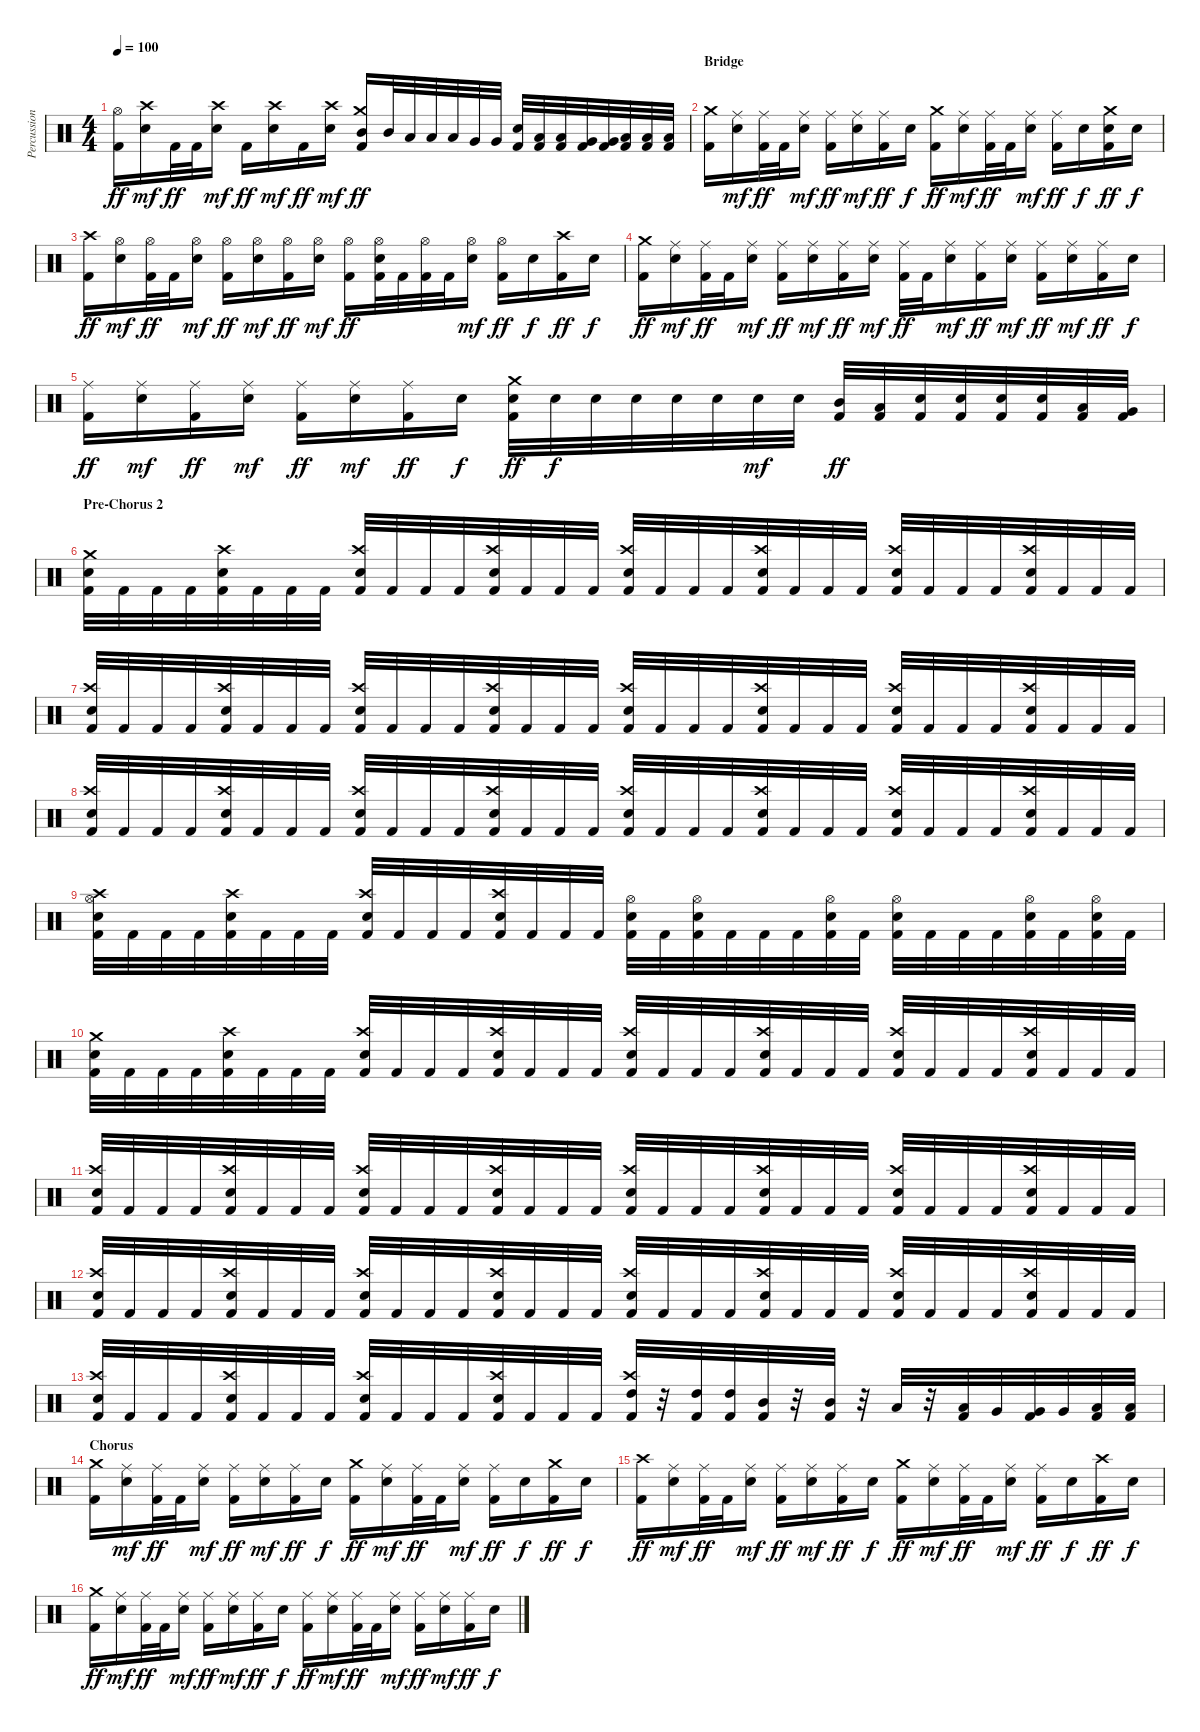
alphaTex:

\track ("Percussion" "Percussion") {instrument percussion}
\staff {score}
\articulation defaults
\ts (4 4)
\tempo 100
\clef neutral
\ks c
("Hi-Hat (open)" "Kick (hit) 2").16{dy ff} ("Crash high (hit)" "Snare (hit) 2").16{dy mf} "Kick (hit) 2".32{dy ff} "Kick (hit) 2".32 ("Crash high (hit)" "Snare (hit) 2").16{dy mf} "Kick (hit) 2".16{dy ff} ("Crash high (hit)" "Snare (hit) 2").16{dy mf} "Kick (hit) 2".16{dy ff} ("Crash high (hit)" "Snare (hit) 2").16{dy mf} ("Crash medium (hit)" "Mid Tom (hit)" "Kick (hit) 2").16{dy ff} "Mid Tom (hit)".32 "Low Tom (hit)".32 "Low Tom (hit)".32 "Low Tom (hit)".32 "Very Low Tom (hit)".32 "Very Low Tom (hit)".32 ("Snare (hit) 2" "Kick (hit) 2").32 ("Low Tom (hit)" "Kick (hit) 2").32 ("Low Tom (hit)" "Kick (hit) 2").32 ("Very Low Tom (hit)" "Kick (hit) 2").32 ("Very Low Tom (hit)" "Kick (hit) 2").32 ("Low Floor Tom (hit)" "Kick (hit) 2").32 ("Low Floor Tom (hit)" "Kick (hit) 2").32 ("Low Floor Tom (hit)" "Kick (hit) 2").32 |
\section ("" "Bridge")
("Crash medium (hit)" "Kick (hit) 2").16 ("Ride (middle)" "Snare (hit) 2").16{dy mf} ("Ride (middle)" "Kick (hit) 2").32{dy ff} "Kick (hit) 2".32 ("Ride (middle)" "Snare (hit) 2").16{dy mf} ("Ride (middle)" "Kick (hit) 2").16{dy ff} ("Ride (middle)" "Snare (hit) 2").16{dy mf} ("Ride (middle)" "Kick (hit) 2").16{dy ff} "Snare (hit) 2".16{dy f} ("Crash medium (hit)" "Kick (hit) 2").16{dy ff} ("Ride (middle)" "Snare (hit) 2").16{dy mf} ("Ride (middle)" "Kick (hit) 2").32{dy ff} "Kick (hit) 2".32 ("Ride (middle)" "Snare (hit) 2").16{dy mf} ("Ride (middle)" "Kick (hit) 2").16{dy ff} "Snare (hit) 2".16{dy f} ("Crash medium (hit)" "Snare (hit) 2" "Kick (hit) 2").16{dy ff} "Snare (hit) 2".16{dy f} |
("Crash high (hit)" "Kick (hit) 2").16{dy ff} ("Hi-Hat (open)" "Snare (hit) 2").16{dy mf} ("Hi-Hat (open)" "Kick (hit) 2").32{dy ff} "Kick (hit) 2".32 ("Hi-Hat (open)" "Snare (hit) 2").16{dy mf} ("Hi-Hat (open)" "Kick (hit) 2").16{dy ff} ("Hi-Hat (open)" "Snare (hit) 2").16{dy mf} ("Hi-Hat (open)" "Kick (hit) 2").16{dy ff} ("Hi-Hat (open)" "Snare (hit) 2").16{dy mf} ("Hi-Hat (open)" "Kick (hit) 2").16{dy ff} ("Hi-Hat (open)" "Snare (hit) 2" "Kick (hit) 2").32 "Kick (hit) 2".32 ("Hi-Hat (open)" "Kick (hit) 2").32 "Kick (hit) 2".32 ("Hi-Hat (open)" "Snare (hit) 2").16{dy mf} ("Hi-Hat (open)" "Kick (hit) 2").16{dy ff} "Snare (hit) 2".16{dy f} ("Crash high (hit)" "Kick (hit) 2").16{dy ff} "Snare (hit) 2".16{dy f} |
("Crash medium (hit)" "Kick (hit) 2").16{dy ff} ("Ride (middle)" "Snare (hit) 2").16{dy mf} ("Ride (middle)" "Kick (hit) 2").32{dy ff} "Kick (hit) 2".32 ("Ride (middle)" "Snare (hit) 2").16{dy mf} ("Ride (middle)" "Kick (hit) 2").16{dy ff} ("Ride (middle)" "Snare (hit) 2").16{dy mf} ("Ride (middle)" "Kick (hit) 2").16{dy ff} ("Ride (middle)" "Snare (hit) 2").16{dy mf} ("Ride (middle)" "Kick (hit) 2").32{dy ff} "Kick (hit) 2".32 ("Ride (middle)" "Snare (hit) 2").16{dy mf} ("Ride (middle)" "Kick (hit) 2").16{dy ff} ("Ride (middle)" "Snare (hit) 2").16{dy mf} ("Ride (middle)" "Kick (hit) 2").16{dy ff} ("Ride (middle)" "Snare (hit) 2").16{dy mf} ("Ride (middle)" "Kick (hit) 2").16{dy ff} "Snare (hit) 2".16{dy f} |
("Ride (middle)" "Kick (hit) 2").16{dy ff} ("Ride (middle)" "Snare (hit) 2").16{dy mf} ("Ride (middle)" "Kick (hit) 2").16{dy ff} ("Ride (middle)" "Snare (hit) 2").16{dy mf} ("Ride (middle)" "Kick (hit) 2").16{dy ff} ("Ride (middle)" "Snare (hit) 2").16{dy mf} ("Ride (middle)" "Kick (hit) 2").16{dy ff} "Snare (hit) 2".16{dy f} ("Crash medium (hit)" "Snare (hit) 2" "Kick (hit) 2").32{dy ff} "Snare (hit) 2".32{dy f} "Snare (hit) 2".32 "Snare (hit) 2".32 "Snare (hit) 2".32 "Snare (hit) 2".32 "Snare (hit) 2".32{dy mf} "Snare (hit) 2".32 ("Mid Tom (hit)" "Kick (hit) 2").32{dy ff} ("Low Tom (hit)" "Kick (hit) 2").32 ("Snare (hit) 2" "Kick (hit) 2").32 ("Snare (hit) 2" "Kick (hit) 2").32 ("Snare (hit) 2" "Kick (hit) 2").32 ("Snare (hit) 2" "Kick (hit) 2").32 ("Low Tom (hit)" "Kick (hit) 2").32 ("Very Low Tom (hit)" "Kick (hit) 2").32 |
\section ("" "Pre-Chorus 2")
("Crash medium (hit)" "Snare (hit) 2" "Kick (hit) 2").32 "Kick (hit) 2".32 "Kick (hit) 2".32 "Kick (hit) 2".32 ("Crash high (hit)" "Snare (hit) 2" "Kick (hit) 2").32 "Kick (hit) 2".32 "Kick (hit) 2".32 "Kick (hit) 2".32 ("Crash high (hit)" "Snare (hit) 2" "Kick (hit) 2").32 "Kick (hit) 2".32 "Kick (hit) 2".32 "Kick (hit) 2".32 ("Crash high (hit)" "Snare (hit) 2" "Kick (hit) 2").32 "Kick (hit) 2".32 "Kick (hit) 2".32 "Kick (hit) 2".32 ("Crash high (hit)" "Snare (hit) 2" "Kick (hit) 2").32 "Kick (hit) 2".32 "Kick (hit) 2".32 "Kick (hit) 2".32 ("Crash high (hit)" "Snare (hit) 2" "Kick (hit) 2").32 "Kick (hit) 2".32 "Kick (hit) 2".32 "Kick (hit) 2".32 ("Crash high (hit)" "Snare (hit) 2" "Kick (hit) 2").32 "Kick (hit) 2".32 "Kick (hit) 2".32 "Kick (hit) 2".32 ("Crash high (hit)" "Snare (hit) 2" "Kick (hit) 2").32 "Kick (hit) 2".32 "Kick (hit) 2".32 "Kick (hit) 2".32 |
("Crash high (hit)" "Snare (hit) 2" "Kick (hit) 2").32 "Kick (hit) 2".32 "Kick (hit) 2".32 "Kick (hit) 2".32 ("Crash high (hit)" "Snare (hit) 2" "Kick (hit) 2").32 "Kick (hit) 2".32 "Kick (hit) 2".32 "Kick (hit) 2".32 ("Crash high (hit)" "Snare (hit) 2" "Kick (hit) 2").32 "Kick (hit) 2".32 "Kick (hit) 2".32 "Kick (hit) 2".32 ("Crash high (hit)" "Snare (hit) 2" "Kick (hit) 2").32 "Kick (hit) 2".32 "Kick (hit) 2".32 "Kick (hit) 2".32 ("Crash high (hit)" "Snare (hit) 2" "Kick (hit) 2").32 "Kick (hit) 2".32 "Kick (hit) 2".32 "Kick (hit) 2".32 ("Crash high (hit)" "Snare (hit) 2" "Kick (hit) 2").32 "Kick (hit) 2".32 "Kick (hit) 2".32 "Kick (hit) 2".32 ("Crash high (hit)" "Snare (hit) 2" "Kick (hit) 2").32 "Kick (hit) 2".32 "Kick (hit) 2".32 "Kick (hit) 2".32 ("Crash high (hit)" "Snare (hit) 2" "Kick (hit) 2").32 "Kick (hit) 2".32 "Kick (hit) 2".32 "Kick (hit) 2".32 |
("Crash high (hit)" "Snare (hit) 2" "Kick (hit) 2").32 "Kick (hit) 2".32 "Kick (hit) 2".32 "Kick (hit) 2".32 ("Crash high (hit)" "Snare (hit) 2" "Kick (hit) 2").32 "Kick (hit) 2".32 "Kick (hit) 2".32 "Kick (hit) 2".32 ("Crash high (hit)" "Snare (hit) 2" "Kick (hit) 2").32 "Kick (hit) 2".32 "Kick (hit) 2".32 "Kick (hit) 2".32 ("Crash high (hit)" "Snare (hit) 2" "Kick (hit) 2").32 "Kick (hit) 2".32 "Kick (hit) 2".32 "Kick (hit) 2".32 ("Crash high (hit)" "Snare (hit) 2" "Kick (hit) 2").32 "Kick (hit) 2".32 "Kick (hit) 2".32 "Kick (hit) 2".32 ("Crash high (hit)" "Snare (hit) 2" "Kick (hit) 2").32 "Kick (hit) 2".32 "Kick (hit) 2".32 "Kick (hit) 2".32 ("Crash high (hit)" "Snare (hit) 2" "Kick (hit) 2").32 "Kick (hit) 2".32 "Kick (hit) 2".32 "Kick (hit) 2".32 ("Crash high (hit)" "Snare (hit) 2" "Kick (hit) 2").32 "Kick (hit) 2".32 "Kick (hit) 2".32 "Kick (hit) 2".32 |
("Hi-Hat (open)" "Crash high (hit)" "Snare (hit) 2" "Kick (hit) 2").32 "Kick (hit) 2".32 "Kick (hit) 2".32 "Kick (hit) 2".32 ("Crash high (hit)" "Snare (hit) 2" "Kick (hit) 2").32 "Kick (hit) 2".32 "Kick (hit) 2".32 "Kick (hit) 2".32 ("Crash high (hit)" "Snare (hit) 2" "Kick (hit) 2").32 "Kick (hit) 2".32 "Kick (hit) 2".32 "Kick (hit) 2".32 ("Crash high (hit)" "Snare (hit) 2" "Kick (hit) 2").32 "Kick (hit) 2".32 "Kick (hit) 2".32 "Kick (hit) 2".32 ("Hi-Hat (open)" "Snare (hit) 2" "Kick (hit) 2").32 "Kick (hit) 2".32 ("Hi-Hat (open)" "Snare (hit) 2" "Kick (hit) 2").32 "Kick (hit) 2".32 "Kick (hit) 2".32 "Kick (hit) 2".32 ("Hi-Hat (open)" "Snare (hit) 2" "Kick (hit) 2").32 "Kick (hit) 2".32 ("Hi-Hat (open)" "Snare (hit) 2" "Kick (hit) 2").32 "Kick (hit) 2".32 "Kick (hit) 2".32 "Kick (hit) 2".32 ("Hi-Hat (open)" "Snare (hit) 2" "Kick (hit) 2").32 "Kick (hit) 2".32 ("Hi-Hat (open)" "Snare (hit) 2" "Kick (hit) 2").32 "Kick (hit) 2".32 |
("Crash medium (hit)" "Snare (hit) 2" "Kick (hit) 2").32 "Kick (hit) 2".32 "Kick (hit) 2".32 "Kick (hit) 2".32 ("Crash high (hit)" "Snare (hit) 2" "Kick (hit) 2").32 "Kick (hit) 2".32 "Kick (hit) 2".32 "Kick (hit) 2".32 ("Crash high (hit)" "Snare (hit) 2" "Kick (hit) 2").32 "Kick (hit) 2".32 "Kick (hit) 2".32 "Kick (hit) 2".32 ("Crash high (hit)" "Snare (hit) 2" "Kick (hit) 2").32 "Kick (hit) 2".32 "Kick (hit) 2".32 "Kick (hit) 2".32 ("Crash high (hit)" "Snare (hit) 2" "Kick (hit) 2").32 "Kick (hit) 2".32 "Kick (hit) 2".32 "Kick (hit) 2".32 ("Crash high (hit)" "Snare (hit) 2" "Kick (hit) 2").32 "Kick (hit) 2".32 "Kick (hit) 2".32 "Kick (hit) 2".32 ("Crash high (hit)" "Snare (hit) 2" "Kick (hit) 2").32 "Kick (hit) 2".32 "Kick (hit) 2".32 "Kick (hit) 2".32 ("Crash high (hit)" "Snare (hit) 2" "Kick (hit) 2").32 "Kick (hit) 2".32 "Kick (hit) 2".32 "Kick (hit) 2".32 |
("Crash high (hit)" "Snare (hit) 2" "Kick (hit) 2").32 "Kick (hit) 2".32 "Kick (hit) 2".32 "Kick (hit) 2".32 ("Crash high (hit)" "Snare (hit) 2" "Kick (hit) 2").32 "Kick (hit) 2".32 "Kick (hit) 2".32 "Kick (hit) 2".32 ("Crash high (hit)" "Snare (hit) 2" "Kick (hit) 2").32 "Kick (hit) 2".32 "Kick (hit) 2".32 "Kick (hit) 2".32 ("Crash high (hit)" "Snare (hit) 2" "Kick (hit) 2").32 "Kick (hit) 2".32 "Kick (hit) 2".32 "Kick (hit) 2".32 ("Crash high (hit)" "Snare (hit) 2" "Kick (hit) 2").32 "Kick (hit) 2".32 "Kick (hit) 2".32 "Kick (hit) 2".32 ("Crash high (hit)" "Snare (hit) 2" "Kick (hit) 2").32 "Kick (hit) 2".32 "Kick (hit) 2".32 "Kick (hit) 2".32 ("Crash high (hit)" "Snare (hit) 2" "Kick (hit) 2").32 "Kick (hit) 2".32 "Kick (hit) 2".32 "Kick (hit) 2".32 ("Crash high (hit)" "Snare (hit) 2" "Kick (hit) 2").32 "Kick (hit) 2".32 "Kick (hit) 2".32 "Kick (hit) 2".32 |
("Crash high (hit)" "Snare (hit) 2" "Kick (hit) 2").32 "Kick (hit) 2".32 "Kick (hit) 2".32 "Kick (hit) 2".32 ("Crash high (hit)" "Snare (hit) 2" "Kick (hit) 2").32 "Kick (hit) 2".32 "Kick (hit) 2".32 "Kick (hit) 2".32 ("Crash high (hit)" "Snare (hit) 2" "Kick (hit) 2").32 "Kick (hit) 2".32 "Kick (hit) 2".32 "Kick (hit) 2".32 ("Crash high (hit)" "Snare (hit) 2" "Kick (hit) 2").32 "Kick (hit) 2".32 "Kick (hit) 2".32 "Kick (hit) 2".32 ("Crash high (hit)" "Snare (hit) 2" "Kick (hit) 2").32 "Kick (hit) 2".32 "Kick (hit) 2".32 "Kick (hit) 2".32 ("Crash high (hit)" "Snare (hit) 2" "Kick (hit) 2").32 "Kick (hit) 2".32 "Kick (hit) 2".32 "Kick (hit) 2".32 ("Crash high (hit)" "Snare (hit) 2" "Kick (hit) 2").32 "Kick (hit) 2".32 "Kick (hit) 2".32 "Kick (hit) 2".32 ("Crash high (hit)" "Snare (hit) 2" "Kick (hit) 2").32 "Kick (hit) 2".32 "Kick (hit) 2".32 "Kick (hit) 2".32 |
("Crash high (hit)" "Snare (hit) 2" "Kick (hit) 2").32 "Kick (hit) 2".32 "Kick (hit) 2".32 "Kick (hit) 2".32 ("Crash high (hit)" "Snare (hit) 2" "Kick (hit) 2").32 "Kick (hit) 2".32 "Kick (hit) 2".32 "Kick (hit) 2".32 ("Crash high (hit)" "Snare (hit) 2" "Kick (hit) 2").32 "Kick (hit) 2".32 "Kick (hit) 2".32 "Kick (hit) 2".32 ("Crash high (hit)" "Snare (hit) 2" "Kick (hit) 2").32 "Kick (hit) 2".32 "Kick (hit) 2".32 "Kick (hit) 2".32 ("Crash high (hit)" "High Tom (hit)" "Kick (hit) 2").32 r.32 ("High Tom (hit)" "Kick (hit) 2").32 ("High Tom (hit)" "Kick (hit) 2").32 ("Mid Tom (hit)" "Kick (hit) 2").32 r.32 ("Mid Tom (hit)" "Kick (hit) 2").32 r.32 "Low Tom (hit)".32 r.32 ("Low Tom (hit)" "Kick (hit) 2").32 "Very Low Tom (hit)".32 ("Very Low Tom (hit)" "Kick (hit) 2").32 "Very Low Tom (hit)".32 ("Low Floor Tom (hit)" "Kick (hit) 2").32 ("Low Floor Tom (hit)" "Kick (hit) 2").32 |
\section ("" "Chorus")
("Crash medium (hit)" "Kick (hit) 2").16 ("Ride (middle)" "Snare (hit) 2").16{dy mf} ("Ride (middle)" "Kick (hit) 2").32{dy ff} "Kick (hit) 2".32 ("Ride (middle)" "Snare (hit) 2").16{dy mf} ("Ride (middle)" "Kick (hit) 2").16{dy ff} ("Ride (middle)" "Snare (hit) 2").16{dy mf} ("Ride (middle)" "Kick (hit) 2").16{dy ff} "Snare (hit) 2".16{dy f} ("Crash medium (hit)" "Kick (hit) 2").16{dy ff} ("Ride (middle)" "Snare (hit) 2").16{dy mf} ("Ride (middle)" "Kick (hit) 2").32{dy ff} "Kick (hit) 2".32 ("Ride (middle)" "Snare (hit) 2").16{dy mf} ("Ride (middle)" "Kick (hit) 2").16{dy ff} "Snare (hit) 2".16{dy f} ("Crash medium (hit)" "Kick (hit) 2").16{dy ff} "Snare (hit) 2".16{dy f} |
("Crash high (hit)" "Kick (hit) 2").16{dy ff} ("Ride (middle)" "Snare (hit) 2").16{dy mf} ("Ride (middle)" "Kick (hit) 2").32{dy ff} "Kick (hit) 2".32 ("Ride (middle)" "Snare (hit) 2").16{dy mf} ("Ride (middle)" "Kick (hit) 2").16{dy ff} ("Ride (middle)" "Snare (hit) 2").16{dy mf} ("Ride (middle)" "Kick (hit) 2").16{dy ff} "Snare (hit) 2".16{dy f} ("Crash medium (hit)" "Kick (hit) 2").16{dy ff} ("Ride (middle)" "Snare (hit) 2").16{dy mf} ("Ride (middle)" "Kick (hit) 2").32{dy ff} "Kick (hit) 2".32 ("Ride (middle)" "Snare (hit) 2").16{dy mf} ("Ride (middle)" "Kick (hit) 2").16{dy ff} "Snare (hit) 2".16{dy f} ("Crash high (hit)" "Kick (hit) 2").16{dy ff} "Snare (hit) 2".16{dy f} |
("Crash medium (hit)" "Kick (hit) 2").16{dy ff} ("Ride (middle)" "Snare (hit) 2").16{dy mf} ("Ride (middle)" "Kick (hit) 2").32{dy ff} "Kick (hit) 2".32 ("Ride (middle)" "Snare (hit) 2").16{dy mf} ("Ride (middle)" "Kick (hit) 2").16{dy ff} ("Ride (middle)" "Snare (hit) 2").16{dy mf} ("Ride (middle)" "Kick (hit) 2").16{dy ff} "Snare (hit) 2".16{dy f} ("Ride (middle)" "Kick (hit) 2").16{dy ff} ("Ride (middle)" "Snare (hit) 2").16{dy mf} ("Ride (middle)" "Kick (hit) 2").32{dy ff} "Kick (hit) 2".32 ("Ride (middle)" "Snare (hit) 2").16{dy mf} ("Ride (middle)" "Kick (hit) 2").16{dy ff} ("Ride (middle)" "Snare (hit) 2").16{dy mf} ("Ride (middle)" "Kick (hit) 2").16{dy ff} "Snare (hit) 2".16{dy f}
